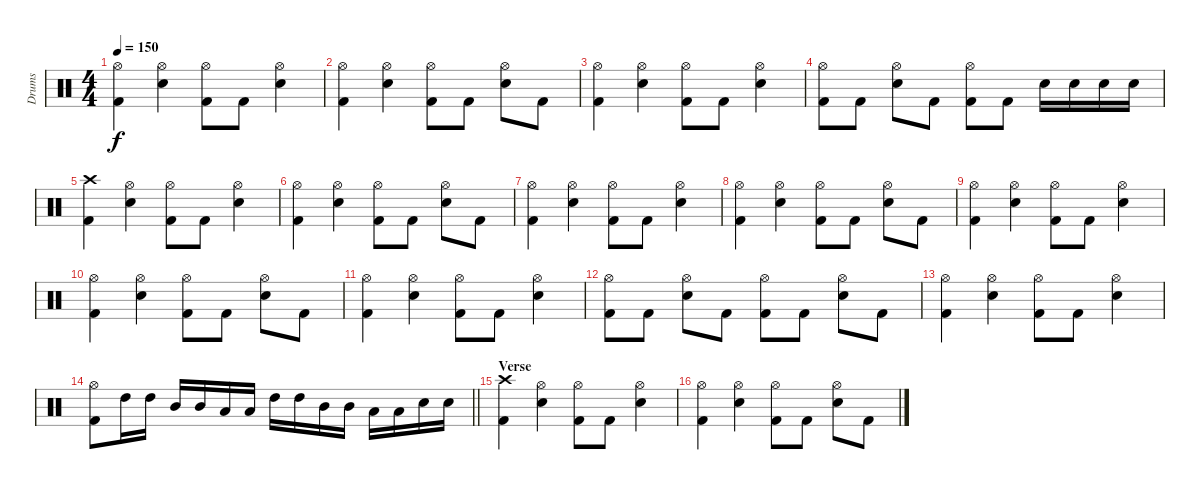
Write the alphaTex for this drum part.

\track ("Drums" "Drums") {instrument percussion}
\staff {score}
\articulation defaults
\ts (4 4)
\tempo 150
\clef neutral
\ks c
("Hi-Hat (open)" "Kick (hit) 2").4{dy f} ("Hi-Hat (open)" "Electric Snare (hit)").4 ("Hi-Hat (open)" "Kick (hit) 2").8 "Kick (hit) 2".8 ("Hi-Hat (open)" "Electric Snare (hit)").4 |
("Hi-Hat (open)" "Kick (hit) 2").4 ("Hi-Hat (open)" "Electric Snare (hit)").4 ("Hi-Hat (open)" "Kick (hit) 2").8 "Kick (hit) 2".8 ("Hi-Hat (open)" "Electric Snare (hit)").8 "Kick (hit) 2".8 |
("Hi-Hat (open)" "Kick (hit) 2").4 ("Hi-Hat (open)" "Electric Snare (hit)").4 ("Hi-Hat (open)" "Kick (hit) 2").8 "Kick (hit) 2".8 ("Hi-Hat (open)" "Electric Snare (hit)").4 |
("Hi-Hat (open)" "Kick (hit) 2").8 "Kick (hit) 2".8 ("Hi-Hat (open)" "Electric Snare (hit)").8 "Kick (hit) 2".8 ("Hi-Hat (open)" "Kick (hit) 2").8 "Kick (hit) 2".8 "Electric Snare (hit)".16 "Electric Snare (hit)".16 "Electric Snare (hit)".16 "Electric Snare (hit)".16 |
("Crash high (hit)" "Kick (hit) 2").4 ("Hi-Hat (open)" "Electric Snare (hit)").4 ("Hi-Hat (open)" "Kick (hit) 2").8 "Kick (hit) 2".8 ("Hi-Hat (open)" "Electric Snare (hit)").4 |
("Hi-Hat (open)" "Kick (hit) 2").4 ("Hi-Hat (open)" "Electric Snare (hit)").4 ("Hi-Hat (open)" "Kick (hit) 2").8 "Kick (hit) 2".8 ("Hi-Hat (open)" "Electric Snare (hit)").8 "Kick (hit) 2".8 |
("Hi-Hat (open)" "Kick (hit) 2").4 ("Hi-Hat (open)" "Electric Snare (hit)").4 ("Hi-Hat (open)" "Kick (hit) 2").8 "Kick (hit) 2".8 ("Hi-Hat (open)" "Electric Snare (hit)").4 |
("Hi-Hat (open)" "Kick (hit) 2").4 ("Hi-Hat (open)" "Electric Snare (hit)").4 ("Hi-Hat (open)" "Kick (hit) 2").8 "Kick (hit) 2".8 ("Hi-Hat (open)" "Electric Snare (hit)").8 "Kick (hit) 2".8 |
("Hi-Hat (open)" "Kick (hit) 2").4 ("Hi-Hat (open)" "Electric Snare (hit)").4 ("Hi-Hat (open)" "Kick (hit) 2").8 "Kick (hit) 2".8 ("Hi-Hat (open)" "Electric Snare (hit)").4 |
("Hi-Hat (open)" "Kick (hit) 2").4 ("Hi-Hat (open)" "Electric Snare (hit)").4 ("Hi-Hat (open)" "Kick (hit) 2").8 "Kick (hit) 2".8 ("Hi-Hat (open)" "Electric Snare (hit)").8 "Kick (hit) 2".8 |
("Hi-Hat (open)" "Kick (hit) 2").4 ("Hi-Hat (open)" "Electric Snare (hit)").4 ("Hi-Hat (open)" "Kick (hit) 2").8 "Kick (hit) 2".8 ("Hi-Hat (open)" "Electric Snare (hit)").4 |
("Hi-Hat (open)" "Kick (hit) 2").8 "Kick (hit) 2".8 ("Hi-Hat (open)" "Electric Snare (hit)").8 "Kick (hit) 2".8 ("Hi-Hat (open)" "Kick (hit) 2").8 "Kick (hit) 2".8 ("Hi-Hat (open)" "Electric Snare (hit)").8 "Kick (hit) 2".8 |
("Hi-Hat (open)" "Kick (hit) 2").4 ("Hi-Hat (open)" "Electric Snare (hit)").4 ("Hi-Hat (open)" "Kick (hit) 2").8 "Kick (hit) 2".8 ("Hi-Hat (open)" "Electric Snare (hit)").4 |
\barLineRight lightlight
("Hi-Hat (open)" "Kick (hit) 2").8 "High Tom (hit)".16 "High Tom (hit)".16 "Mid Tom (hit)".16 "Mid Tom (hit)".16 "Low Tom (hit)".16 "Low Tom (hit)".16 "High Tom (hit)".16 "High Tom (hit)".16 "Mid Tom (hit)".16 "Mid Tom (hit)".16 "Low Tom (hit)".16 "Low Tom (hit)".16 "Electric Snare (hit)".16 "Electric Snare (hit)".16 |
\section ("" "Verse")
("Crash high (hit)" "Kick (hit) 2").4 ("Hi-Hat (open)" "Electric Snare (hit)").4 ("Hi-Hat (open)" "Kick (hit) 2").8 "Kick (hit) 2".8 ("Hi-Hat (open)" "Electric Snare (hit)").4 |
("Hi-Hat (open)" "Kick (hit) 2").4 ("Hi-Hat (open)" "Electric Snare (hit)").4 ("Hi-Hat (open)" "Kick (hit) 2").8 "Kick (hit) 2".8 ("Hi-Hat (open)" "Electric Snare (hit)").8 "Kick (hit) 2".8
